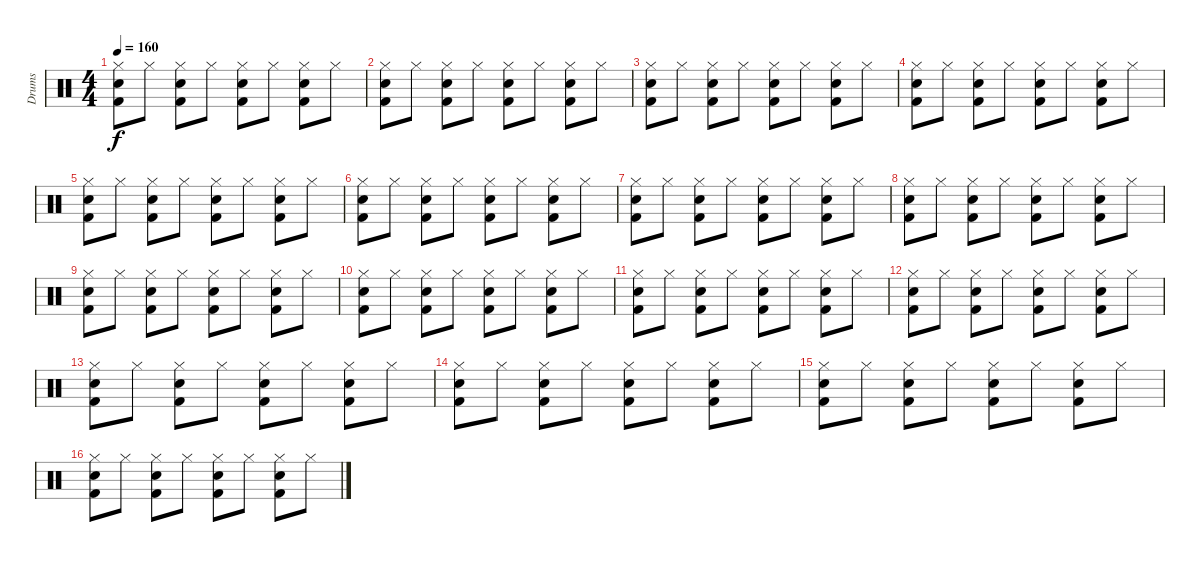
\track ("Drums" "Drums") {instrument percussion}
\staff {score}
\articulation defaults
\ts (4 4)
\tempo 160
\clef neutral
\ks c
("Hi-Hat (closed)" "Kick (hit) 2" "Electric Snare (hit)").8{dy f} "Hi-Hat (closed)".8 ("Hi-Hat (closed)" "Kick (hit) 2" "Electric Snare (hit)").8 "Hi-Hat (closed)".8 ("Hi-Hat (closed)" "Kick (hit) 2" "Electric Snare (hit)").8 "Hi-Hat (closed)".8 ("Hi-Hat (closed)" "Kick (hit) 2" "Electric Snare (hit)").8 "Hi-Hat (closed)".8 |
("Hi-Hat (closed)" "Kick (hit) 2" "Electric Snare (hit)").8 "Hi-Hat (closed)".8 ("Hi-Hat (closed)" "Kick (hit) 2" "Electric Snare (hit)").8 "Hi-Hat (closed)".8 ("Hi-Hat (closed)" "Kick (hit) 2" "Electric Snare (hit)").8 "Hi-Hat (closed)".8 ("Hi-Hat (closed)" "Kick (hit) 2" "Electric Snare (hit)").8 "Hi-Hat (closed)".8 |
("Hi-Hat (closed)" "Kick (hit) 2" "Electric Snare (hit)").8 "Hi-Hat (closed)".8 ("Hi-Hat (closed)" "Kick (hit) 2" "Electric Snare (hit)").8 "Hi-Hat (closed)".8 ("Hi-Hat (closed)" "Kick (hit) 2" "Electric Snare (hit)").8 "Hi-Hat (closed)".8 ("Hi-Hat (closed)" "Kick (hit) 2" "Electric Snare (hit)").8 "Hi-Hat (closed)".8 |
("Hi-Hat (closed)" "Kick (hit) 2" "Electric Snare (hit)").8 "Hi-Hat (closed)".8 ("Hi-Hat (closed)" "Kick (hit) 2" "Electric Snare (hit)").8 "Hi-Hat (closed)".8 ("Hi-Hat (closed)" "Kick (hit) 2" "Electric Snare (hit)").8 "Hi-Hat (closed)".8 ("Hi-Hat (closed)" "Kick (hit) 2" "Electric Snare (hit)").8 "Hi-Hat (closed)".8 |
("Hi-Hat (closed)" "Kick (hit) 2" "Electric Snare (hit)").8 "Hi-Hat (closed)".8 ("Hi-Hat (closed)" "Kick (hit) 2" "Electric Snare (hit)").8 "Hi-Hat (closed)".8 ("Hi-Hat (closed)" "Kick (hit) 2" "Electric Snare (hit)").8 "Hi-Hat (closed)".8 ("Hi-Hat (closed)" "Kick (hit) 2" "Electric Snare (hit)").8 "Hi-Hat (closed)".8 |
("Hi-Hat (closed)" "Kick (hit) 2" "Electric Snare (hit)").8 "Hi-Hat (closed)".8 ("Hi-Hat (closed)" "Kick (hit) 2" "Electric Snare (hit)").8 "Hi-Hat (closed)".8 ("Hi-Hat (closed)" "Kick (hit) 2" "Electric Snare (hit)").8 "Hi-Hat (closed)".8 ("Hi-Hat (closed)" "Kick (hit) 2" "Electric Snare (hit)").8 "Hi-Hat (closed)".8 |
("Hi-Hat (closed)" "Kick (hit) 2" "Electric Snare (hit)").8 "Hi-Hat (closed)".8 ("Hi-Hat (closed)" "Kick (hit) 2" "Electric Snare (hit)").8 "Hi-Hat (closed)".8 ("Hi-Hat (closed)" "Kick (hit) 2" "Electric Snare (hit)").8 "Hi-Hat (closed)".8 ("Hi-Hat (closed)" "Kick (hit) 2" "Electric Snare (hit)").8 "Hi-Hat (closed)".8 |
("Hi-Hat (closed)" "Kick (hit) 2" "Electric Snare (hit)").8 "Hi-Hat (closed)".8 ("Hi-Hat (closed)" "Kick (hit) 2" "Electric Snare (hit)").8 "Hi-Hat (closed)".8 ("Hi-Hat (closed)" "Kick (hit) 2" "Electric Snare (hit)").8 "Hi-Hat (closed)".8 ("Hi-Hat (closed)" "Kick (hit) 2" "Electric Snare (hit)").8 "Hi-Hat (closed)".8 |
("Hi-Hat (closed)" "Kick (hit) 2" "Electric Snare (hit)").8 "Hi-Hat (closed)".8 ("Hi-Hat (closed)" "Kick (hit) 2" "Electric Snare (hit)").8 "Hi-Hat (closed)".8 ("Hi-Hat (closed)" "Kick (hit) 2" "Electric Snare (hit)").8 "Hi-Hat (closed)".8 ("Hi-Hat (closed)" "Kick (hit) 2" "Electric Snare (hit)").8 "Hi-Hat (closed)".8 |
("Hi-Hat (closed)" "Kick (hit) 2" "Electric Snare (hit)").8 "Hi-Hat (closed)".8 ("Hi-Hat (closed)" "Kick (hit) 2" "Electric Snare (hit)").8 "Hi-Hat (closed)".8 ("Hi-Hat (closed)" "Kick (hit) 2" "Electric Snare (hit)").8 "Hi-Hat (closed)".8 ("Hi-Hat (closed)" "Kick (hit) 2" "Electric Snare (hit)").8 "Hi-Hat (closed)".8 |
("Hi-Hat (closed)" "Kick (hit) 2" "Electric Snare (hit)").8 "Hi-Hat (closed)".8 ("Hi-Hat (closed)" "Kick (hit) 2" "Electric Snare (hit)").8 "Hi-Hat (closed)".8 ("Hi-Hat (closed)" "Kick (hit) 2" "Electric Snare (hit)").8 "Hi-Hat (closed)".8 ("Hi-Hat (closed)" "Kick (hit) 2" "Electric Snare (hit)").8 "Hi-Hat (closed)".8 |
("Hi-Hat (closed)" "Kick (hit) 2" "Electric Snare (hit)").8 "Hi-Hat (closed)".8 ("Hi-Hat (closed)" "Kick (hit) 2" "Electric Snare (hit)").8 "Hi-Hat (closed)".8 ("Hi-Hat (closed)" "Kick (hit) 2" "Electric Snare (hit)").8 "Hi-Hat (closed)".8 ("Hi-Hat (closed)" "Kick (hit) 2" "Electric Snare (hit)").8 "Hi-Hat (closed)".8 |
("Hi-Hat (closed)" "Kick (hit) 2" "Electric Snare (hit)").8 "Hi-Hat (closed)".8 ("Hi-Hat (closed)" "Kick (hit) 2" "Electric Snare (hit)").8 "Hi-Hat (closed)".8 ("Hi-Hat (closed)" "Kick (hit) 2" "Electric Snare (hit)").8 "Hi-Hat (closed)".8 ("Hi-Hat (closed)" "Kick (hit) 2" "Electric Snare (hit)").8 "Hi-Hat (closed)".8 |
("Hi-Hat (closed)" "Kick (hit) 2" "Electric Snare (hit)").8 "Hi-Hat (closed)".8 ("Hi-Hat (closed)" "Kick (hit) 2" "Electric Snare (hit)").8 "Hi-Hat (closed)".8 ("Hi-Hat (closed)" "Kick (hit) 2" "Electric Snare (hit)").8 "Hi-Hat (closed)".8 ("Hi-Hat (closed)" "Kick (hit) 2" "Electric Snare (hit)").8 "Hi-Hat (closed)".8 |
("Hi-Hat (closed)" "Kick (hit) 2" "Electric Snare (hit)").8 "Hi-Hat (closed)".8 ("Hi-Hat (closed)" "Kick (hit) 2" "Electric Snare (hit)").8 "Hi-Hat (closed)".8 ("Hi-Hat (closed)" "Kick (hit) 2" "Electric Snare (hit)").8 "Hi-Hat (closed)".8 ("Hi-Hat (closed)" "Kick (hit) 2" "Electric Snare (hit)").8 "Hi-Hat (closed)".8 |
("Hi-Hat (closed)" "Kick (hit) 2" "Electric Snare (hit)").8 "Hi-Hat (closed)".8 ("Hi-Hat (closed)" "Kick (hit) 2" "Electric Snare (hit)").8 "Hi-Hat (closed)".8 ("Hi-Hat (closed)" "Kick (hit) 2" "Electric Snare (hit)").8 "Hi-Hat (closed)".8 ("Hi-Hat (closed)" "Kick (hit) 2" "Electric Snare (hit)").8 "Hi-Hat (closed)".8
